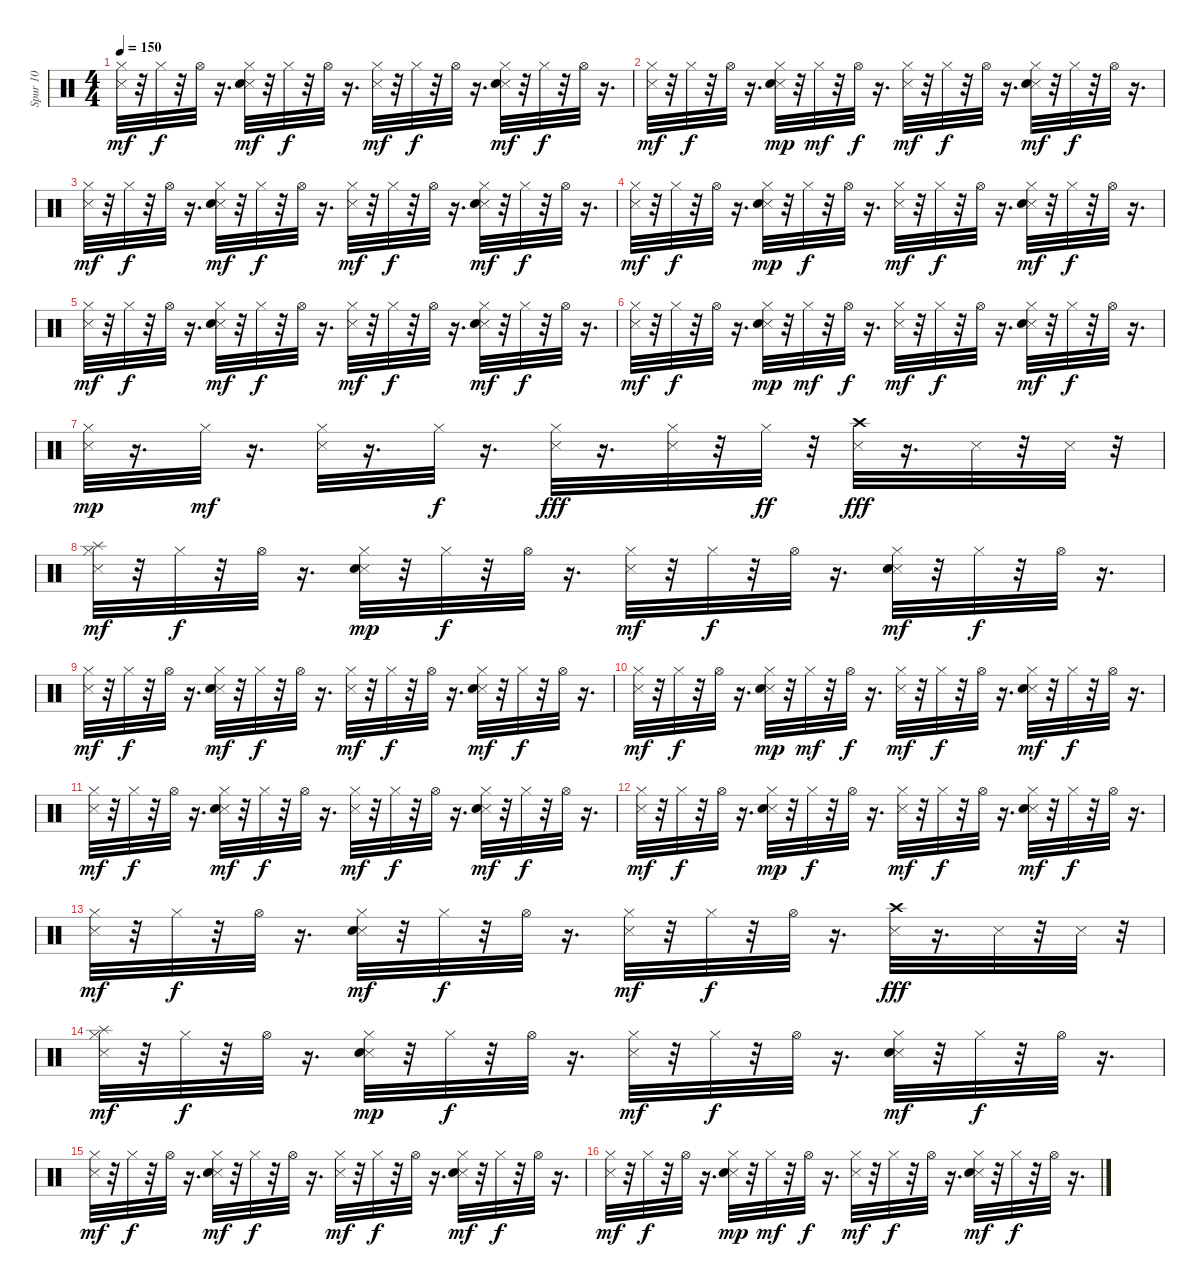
\track ("Spur 10" "Spur 10") {instrument percussion}
\staff {score}
\articulation defaults
\ts (4 4)
\tempo 150
\clef neutral
\ks c
("Metronome (hit)" "Hi-Hat (closed)").32{dy mf} r.32 "Hi-Hat (closed)".32{dy f} r.32 "Hi-Hat (open)".32 r.16{d} ("Metronome (hit)" "Snare (hit) 2" "Hi-Hat (closed)").32{dy mf} r.32 "Hi-Hat (closed)".32{dy f} r.32 "Hi-Hat (open)".32 r.16{d} ("Metronome (hit)" "Hi-Hat (closed)").32{dy mf} r.32 "Hi-Hat (closed)".32{dy f} r.32 "Hi-Hat (open)".32 r.16{d} ("Metronome (hit)" "Snare (hit) 2" "Hi-Hat (closed)").32{dy mf} r.32 "Hi-Hat (closed)".32{dy f} r.32 "Hi-Hat (open)".32 r.16{d} |
("Metronome (hit)" "Hi-Hat (closed)").32{dy mf} r.32 "Hi-Hat (closed)".32{dy f} r.32 "Hi-Hat (open)".32 r.16{d} ("Metronome (hit)" "Snare (hit) 2" "Hi-Hat (closed)").32{dy mp} r.32 "Hi-Hat (closed)".32{dy mf} r.32 "Hi-Hat (open)".32{dy f} r.16{d} ("Metronome (hit)" "Hi-Hat (closed)").32{dy mf} r.32 "Hi-Hat (closed)".32{dy f} r.32 "Hi-Hat (open)".32 r.16{d} ("Metronome (hit)" "Snare (hit) 2" "Hi-Hat (closed)").32{dy mf} r.32 "Hi-Hat (closed)".32{dy f} r.32 "Hi-Hat (open)".32 r.16{d} |
("Metronome (hit)" "Hi-Hat (closed)").32{dy mf} r.32 "Hi-Hat (closed)".32{dy f} r.32 "Hi-Hat (open)".32 r.16{d} ("Metronome (hit)" "Snare (hit) 2" "Hi-Hat (closed)").32{dy mf} r.32 "Hi-Hat (closed)".32{dy f} r.32 "Hi-Hat (open)".32 r.16{d} ("Metronome (hit)" "Hi-Hat (closed)").32{dy mf} r.32 "Hi-Hat (closed)".32{dy f} r.32 "Hi-Hat (open)".32 r.16{d} ("Metronome (hit)" "Snare (hit) 2" "Hi-Hat (closed)").32{dy mf} r.32 "Hi-Hat (closed)".32{dy f} r.32 "Hi-Hat (open)".32 r.16{d} |
("Metronome (hit)" "Hi-Hat (closed)").32{dy mf} r.32 "Hi-Hat (closed)".32{dy f} r.32 "Hi-Hat (open)".32 r.16{d} ("Metronome (hit)" "Snare (hit) 2" "Hi-Hat (closed)").32{dy mp} r.32 "Hi-Hat (closed)".32{dy f} r.32 "Hi-Hat (open)".32 r.16{d} ("Metronome (hit)" "Hi-Hat (closed)").32{dy mf} r.32 "Hi-Hat (closed)".32{dy f} r.32 "Hi-Hat (open)".32 r.16{d} ("Metronome (hit)" "Snare (hit) 2" "Hi-Hat (closed)").32{dy mf} r.32 "Hi-Hat (closed)".32{dy f} r.32 "Hi-Hat (open)".32 r.16{d} |
("Metronome (hit)" "Hi-Hat (closed)").32{dy mf} r.32 "Hi-Hat (closed)".32{dy f} r.32 "Hi-Hat (open)".32 r.16{d} ("Metronome (hit)" "Snare (hit) 2" "Hi-Hat (closed)").32{dy mf} r.32 "Hi-Hat (closed)".32{dy f} r.32 "Hi-Hat (open)".32 r.16{d} ("Metronome (hit)" "Hi-Hat (closed)").32{dy mf} r.32 "Hi-Hat (closed)".32{dy f} r.32 "Hi-Hat (open)".32 r.16{d} ("Metronome (hit)" "Snare (hit) 2" "Hi-Hat (closed)").32{dy mf} r.32 "Hi-Hat (closed)".32{dy f} r.32 "Hi-Hat (open)".32 r.16{d} |
("Metronome (hit)" "Hi-Hat (closed)").32{dy mf} r.32 "Hi-Hat (closed)".32{dy f} r.32 "Hi-Hat (open)".32 r.16{d} ("Metronome (hit)" "Snare (hit) 2" "Hi-Hat (closed)").32{dy mp} r.32 "Hi-Hat (closed)".32{dy mf} r.32 "Hi-Hat (open)".32{dy f} r.16{d} ("Metronome (hit)" "Hi-Hat (closed)").32{dy mf} r.32 "Hi-Hat (closed)".32{dy f} r.32 "Hi-Hat (open)".32 r.16{d} ("Metronome (hit)" "Snare (hit) 2" "Hi-Hat (closed)").32{dy mf} r.32 "Hi-Hat (closed)".32{dy f} r.32 "Hi-Hat (open)".32 r.16{d} |
("Metronome (hit)" "Hi-Hat (closed)").32{dy mp} r.16{d} "Hi-Hat (closed)".32{dy mf} r.16{d} ("Metronome (hit)" "Hi-Hat (closed)").32 r.16{d} "Hi-Hat (closed)".32{dy f} r.16{d} ("Metronome (hit)" "Hi-Hat (closed)").32{dy fff} r.16{d} ("Metronome (hit)" "Hi-Hat (closed)").32 r.32 "Hi-Hat (closed)".32{dy ff} r.32 ("Metronome (hit)" "Crash high (hit)").32{dy fff} r.16{d} "Metronome (hit)".32 r.32 "Metronome (hit)".32 r.32 |
("Splash (hit)" "Metronome (hit)" "Hi-Hat (closed)").32{dy mf} r.32 "Hi-Hat (closed)".32{dy f} r.32 "Hi-Hat (open)".32 r.16{d} ("Metronome (hit)" "Snare (hit) 2" "Hi-Hat (closed)").32{dy mp} r.32 "Hi-Hat (closed)".32{dy f} r.32 "Hi-Hat (open)".32 r.16{d} ("Metronome (hit)" "Hi-Hat (closed)").32{dy mf} r.32 "Hi-Hat (closed)".32{dy f} r.32 "Hi-Hat (open)".32 r.16{d} ("Metronome (hit)" "Snare (hit) 2" "Hi-Hat (closed)").32{dy mf} r.32 "Hi-Hat (closed)".32{dy f} r.32 "Hi-Hat (open)".32 r.16{d} |
("Metronome (hit)" "Hi-Hat (closed)").32{dy mf} r.32 "Hi-Hat (closed)".32{dy f} r.32 "Hi-Hat (open)".32 r.16{d} ("Metronome (hit)" "Snare (hit) 2" "Hi-Hat (closed)").32{dy mf} r.32 "Hi-Hat (closed)".32{dy f} r.32 "Hi-Hat (open)".32 r.16{d} ("Metronome (hit)" "Hi-Hat (closed)").32{dy mf} r.32 "Hi-Hat (closed)".32{dy f} r.32 "Hi-Hat (open)".32 r.16{d} ("Metronome (hit)" "Snare (hit) 2" "Hi-Hat (closed)").32{dy mf} r.32 "Hi-Hat (closed)".32{dy f} r.32 "Hi-Hat (open)".32 r.16{d} |
("Metronome (hit)" "Hi-Hat (closed)").32{dy mf} r.32 "Hi-Hat (closed)".32{dy f} r.32 "Hi-Hat (open)".32 r.16{d} ("Metronome (hit)" "Snare (hit) 2" "Hi-Hat (closed)").32{dy mp} r.32 "Hi-Hat (closed)".32{dy mf} r.32 "Hi-Hat (open)".32{dy f} r.16{d} ("Metronome (hit)" "Hi-Hat (closed)").32{dy mf} r.32 "Hi-Hat (closed)".32{dy f} r.32 "Hi-Hat (open)".32 r.16{d} ("Metronome (hit)" "Snare (hit) 2" "Hi-Hat (closed)").32{dy mf} r.32 "Hi-Hat (closed)".32{dy f} r.32 "Hi-Hat (open)".32 r.16{d} |
("Metronome (hit)" "Hi-Hat (closed)").32{dy mf} r.32 "Hi-Hat (closed)".32{dy f} r.32 "Hi-Hat (open)".32 r.16{d} ("Metronome (hit)" "Snare (hit) 2" "Hi-Hat (closed)").32{dy mf} r.32 "Hi-Hat (closed)".32{dy f} r.32 "Hi-Hat (open)".32 r.16{d} ("Metronome (hit)" "Hi-Hat (closed)").32{dy mf} r.32 "Hi-Hat (closed)".32{dy f} r.32 "Hi-Hat (open)".32 r.16{d} ("Metronome (hit)" "Snare (hit) 2" "Hi-Hat (closed)").32{dy mf} r.32 "Hi-Hat (closed)".32{dy f} r.32 "Hi-Hat (open)".32 r.16{d} |
("Metronome (hit)" "Hi-Hat (closed)").32{dy mf} r.32 "Hi-Hat (closed)".32{dy f} r.32 "Hi-Hat (open)".32 r.16{d} ("Metronome (hit)" "Snare (hit) 2" "Hi-Hat (closed)").32{dy mp} r.32 "Hi-Hat (closed)".32{dy f} r.32 "Hi-Hat (open)".32 r.16{d} ("Metronome (hit)" "Hi-Hat (closed)").32{dy mf} r.32 "Hi-Hat (closed)".32{dy f} r.32 "Hi-Hat (open)".32 r.16{d} ("Metronome (hit)" "Snare (hit) 2" "Hi-Hat (closed)").32{dy mf} r.32 "Hi-Hat (closed)".32{dy f} r.32 "Hi-Hat (open)".32 r.16{d} |
("Metronome (hit)" "Hi-Hat (closed)").32{dy mf} r.32 "Hi-Hat (closed)".32{dy f} r.32 "Hi-Hat (open)".32 r.16{d} ("Metronome (hit)" "Snare (hit) 2" "Hi-Hat (closed)").32{dy mf} r.32 "Hi-Hat (closed)".32{dy f} r.32 "Hi-Hat (open)".32 r.16{d} ("Metronome (hit)" "Hi-Hat (closed)").32{dy mf} r.32 "Hi-Hat (closed)".32{dy f} r.32 "Hi-Hat (open)".32 r.16{d} ("Metronome (hit)" "Crash high (hit)").32{dy fff} r.16{d} "Metronome (hit)".32 r.32 "Metronome (hit)".32 r.32 |
("Splash (hit)" "Metronome (hit)" "Hi-Hat (closed)").32{dy mf} r.32 "Hi-Hat (closed)".32{dy f} r.32 "Hi-Hat (open)".32 r.16{d} ("Metronome (hit)" "Snare (hit) 2" "Hi-Hat (closed)").32{dy mp} r.32 "Hi-Hat (closed)".32{dy f} r.32 "Hi-Hat (open)".32 r.16{d} ("Metronome (hit)" "Hi-Hat (closed)").32{dy mf} r.32 "Hi-Hat (closed)".32{dy f} r.32 "Hi-Hat (open)".32 r.16{d} ("Metronome (hit)" "Snare (hit) 2" "Hi-Hat (closed)").32{dy mf} r.32 "Hi-Hat (closed)".32{dy f} r.32 "Hi-Hat (open)".32 r.16{d} |
("Metronome (hit)" "Hi-Hat (closed)").32{dy mf} r.32 "Hi-Hat (closed)".32{dy f} r.32 "Hi-Hat (open)".32 r.16{d} ("Metronome (hit)" "Snare (hit) 2" "Hi-Hat (closed)").32{dy mf} r.32 "Hi-Hat (closed)".32{dy f} r.32 "Hi-Hat (open)".32 r.16{d} ("Metronome (hit)" "Hi-Hat (closed)").32{dy mf} r.32 "Hi-Hat (closed)".32{dy f} r.32 "Hi-Hat (open)".32 r.16{d} ("Metronome (hit)" "Snare (hit) 2" "Hi-Hat (closed)").32{dy mf} r.32 "Hi-Hat (closed)".32{dy f} r.32 "Hi-Hat (open)".32 r.16{d} |
("Metronome (hit)" "Hi-Hat (closed)").32{dy mf} r.32 "Hi-Hat (closed)".32{dy f} r.32 "Hi-Hat (open)".32 r.16{d} ("Metronome (hit)" "Snare (hit) 2" "Hi-Hat (closed)").32{dy mp} r.32 "Hi-Hat (closed)".32{dy mf} r.32 "Hi-Hat (open)".32{dy f} r.16{d} ("Metronome (hit)" "Hi-Hat (closed)").32{dy mf} r.32 "Hi-Hat (closed)".32{dy f} r.32 "Hi-Hat (open)".32 r.16{d} ("Metronome (hit)" "Snare (hit) 2" "Hi-Hat (closed)").32{dy mf} r.32 "Hi-Hat (closed)".32{dy f} r.32 "Hi-Hat (open)".32 r.16{d}
